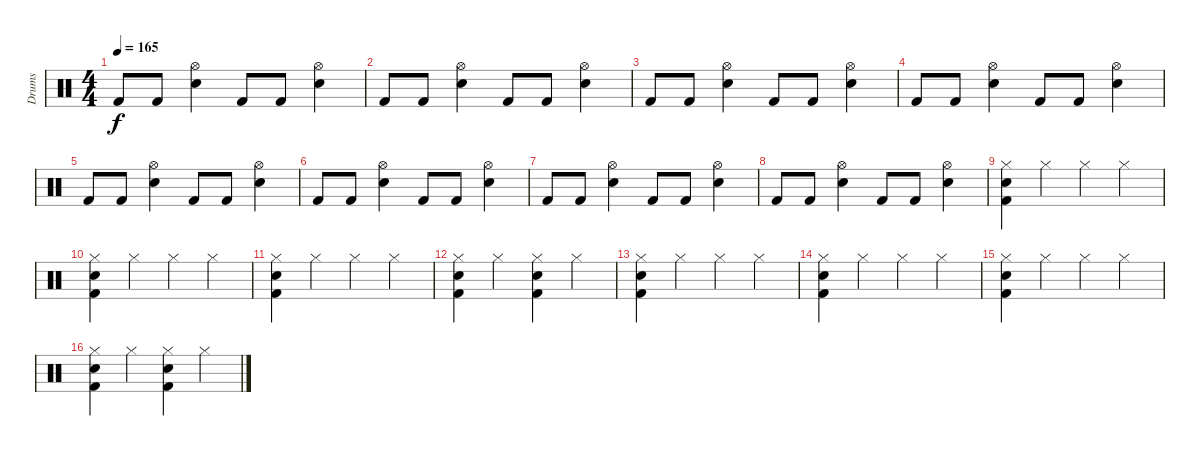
\track ("Drums" "Drums") {instrument percussion}
\staff {score}
\articulation defaults
\ts (4 4)
\tempo 165
\clef neutral
\ks c "Kick (hit) 2".8{dy f} "Kick (hit) 2".8
("Snare (hit) 2" "Hi-Hat (open)").4 "Kick (hit) 2".8 "Kick (hit) 2".8 ("Snare (hit) 2" "Hi-Hat (open)").4 |
"Kick (hit) 2".8 "Kick (hit) 2".8 ("Snare (hit) 2" "Hi-Hat (open)").4 "Kick (hit) 2".8 "Kick (hit) 2".8 ("Snare (hit) 2" "Hi-Hat (open)").4 |
"Kick (hit) 2".8 "Kick (hit) 2".8 ("Snare (hit) 2" "Hi-Hat (open)").4 "Kick (hit) 2".8 "Kick (hit) 2".8 ("Snare (hit) 2" "Hi-Hat (open)").4 |
"Kick (hit) 2".8 "Kick (hit) 2".8 ("Snare (hit) 2" "Hi-Hat (open)").4 "Kick (hit) 2".8 "Kick (hit) 2".8 ("Snare (hit) 2" "Hi-Hat (open)").4 |
"Kick (hit) 2".8 "Kick (hit) 2".8 ("Snare (hit) 2" "Hi-Hat (open)").4 "Kick (hit) 2".8 "Kick (hit) 2".8 ("Snare (hit) 2" "Hi-Hat (open)").4 |
"Kick (hit) 2".8 "Kick (hit) 2".8 ("Snare (hit) 2" "Hi-Hat (open)").4 "Kick (hit) 2".8 "Kick (hit) 2".8 ("Snare (hit) 2" "Hi-Hat (open)").4 |
"Kick (hit) 2".8 "Kick (hit) 2".8 ("Snare (hit) 2" "Hi-Hat (open)").4 "Kick (hit) 2".8 "Kick (hit) 2".8 ("Snare (hit) 2" "Hi-Hat (open)").4 |
"Kick (hit) 2".8 "Kick (hit) 2".8 ("Snare (hit) 2" "Hi-Hat (open)").4 "Kick (hit) 2".8 "Kick (hit) 2".8 ("Snare (hit) 2" "Hi-Hat (open)").4 |
("Kick (hit) 2" "Snare (hit) 2" "Hi-Hat (closed)").4 "Hi-Hat (closed)".4 "Hi-Hat (closed)".4 "Hi-Hat (closed)".4 |
("Kick (hit) 2" "Snare (hit) 2" "Hi-Hat (closed)").4 "Hi-Hat (closed)".4 "Hi-Hat (closed)".4 "Hi-Hat (closed)".4 |
("Kick (hit) 2" "Snare (hit) 2" "Hi-Hat (closed)").4 "Hi-Hat (closed)".4 "Hi-Hat (closed)".4 "Hi-Hat (closed)".4 |
("Kick (hit) 2" "Snare (hit) 2" "Hi-Hat (closed)").4 "Hi-Hat (closed)".4 ("Kick (hit) 2" "Snare (hit) 2" "Hi-Hat (closed)").4 "Hi-Hat (closed)".4 |
("Kick (hit) 2" "Snare (hit) 2" "Hi-Hat (closed)").4 "Hi-Hat (closed)".4 "Hi-Hat (closed)".4 "Hi-Hat (closed)".4 |
("Kick (hit) 2" "Snare (hit) 2" "Hi-Hat (closed)").4 "Hi-Hat (closed)".4 "Hi-Hat (closed)".4 "Hi-Hat (closed)".4 |
("Kick (hit) 2" "Snare (hit) 2" "Hi-Hat (closed)").4 "Hi-Hat (closed)".4 "Hi-Hat (closed)".4 "Hi-Hat (closed)".4 |
("Kick (hit) 2" "Snare (hit) 2" "Hi-Hat (closed)").4 "Hi-Hat (closed)".4 ("Kick (hit) 2" "Snare (hit) 2" "Hi-Hat (closed)").4 "Hi-Hat (closed)".4
